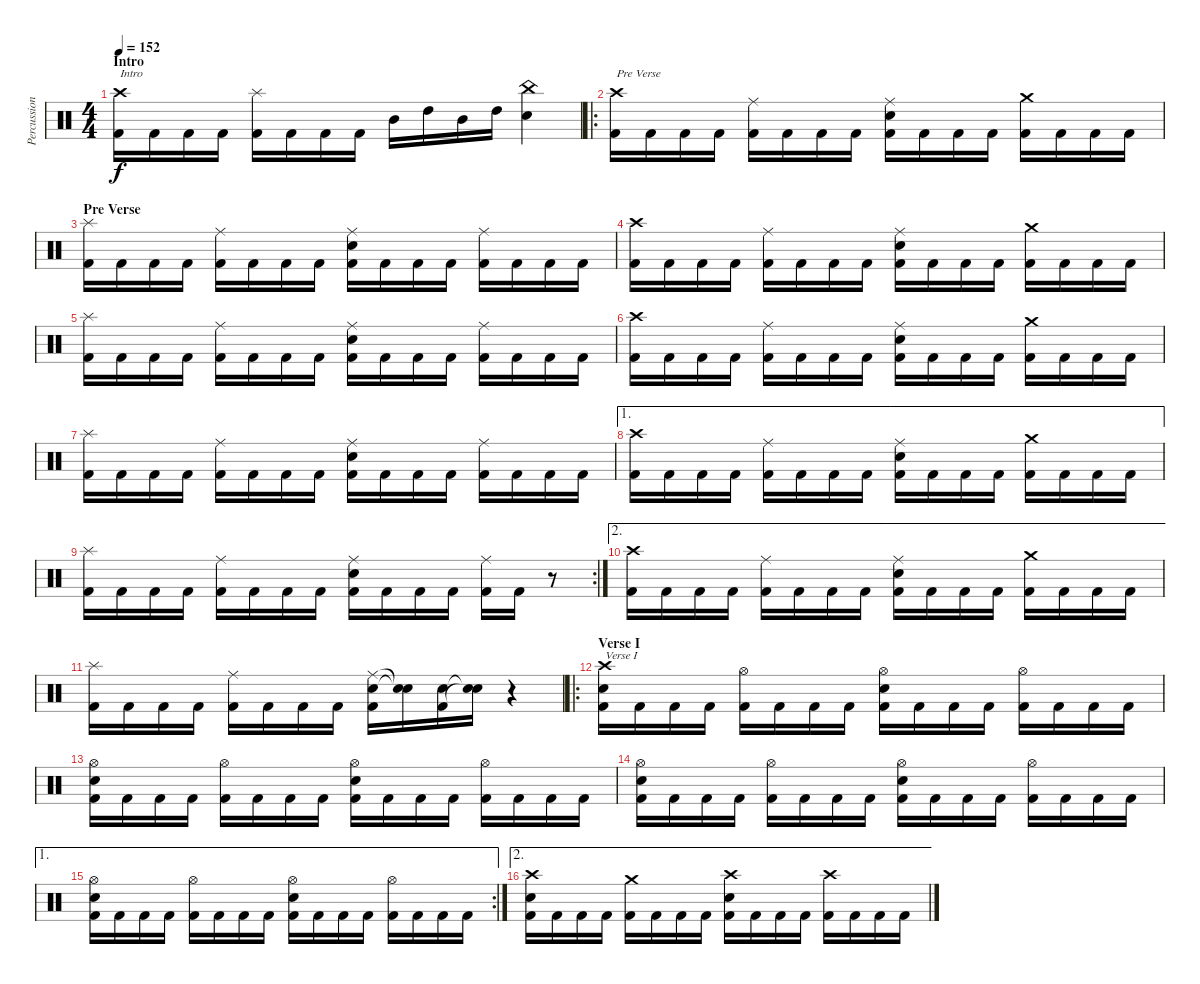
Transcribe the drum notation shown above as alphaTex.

\track ("Percussion" "Percussion") {instrument percussion}
\staff {score}
\articulation defaults
\ts (4 4)
\section ("" "Intro")
\tempo 152
\clef neutral
\ks c
("Crash high (hit)" "Kick (hit) 2").16{txt "Intro" dy f} "Kick (hit) 2".16 "Kick (hit) 2".16 "Kick (hit) 2".16 ("Splash (hit)" "Kick (hit) 2").16 "Kick (hit) 2".16 "Kick (hit) 2".16 "Kick (hit) 2".16 "Mid Tom (hit)".16 "High Tom (hit)".16 "Mid Tom (hit)".16 "High Tom (hit)".16 ("China (hit)" "Electric Snare (hit)").4 |
\ro
("Crash high (hit)" "Kick (hit) 2").16{txt "Pre Verse"} "Kick (hit) 2".16 "Kick (hit) 2".16 "Kick (hit) 2".16 ("Ride (middle)" "Kick (hit) 2").16 "Kick (hit) 2".16 "Kick (hit) 2".16 "Kick (hit) 2".16 ("Ride (middle)" "Electric Snare (hit)" "Kick (hit) 2").16 "Kick (hit) 2".16 "Kick (hit) 2".16 "Kick (hit) 2".16 ("Crash medium (hit)" "Kick (hit) 2").16 "Kick (hit) 2".16 "Kick (hit) 2".16 "Kick (hit) 2".16 |
\section ("" "Pre Verse")
("Splash (hit)" "Kick (hit) 2").16 "Kick (hit) 2".16 "Kick (hit) 2".16 "Kick (hit) 2".16 ("Ride (middle)" "Kick (hit) 2").16 "Kick (hit) 2".16 "Kick (hit) 2".16 "Kick (hit) 2".16 ("Ride (middle)" "Electric Snare (hit)" "Kick (hit) 2").16 "Kick (hit) 2".16 "Kick (hit) 2".16 "Kick (hit) 2".16 ("Ride (middle)" "Kick (hit) 2").16 "Kick (hit) 2".16 "Kick (hit) 2".16 "Kick (hit) 2".16 |
("Crash high (hit)" "Kick (hit) 2").16 "Kick (hit) 2".16 "Kick (hit) 2".16 "Kick (hit) 2".16 ("Ride (middle)" "Kick (hit) 2").16 "Kick (hit) 2".16 "Kick (hit) 2".16 "Kick (hit) 2".16 ("Ride (middle)" "Electric Snare (hit)" "Kick (hit) 2").16 "Kick (hit) 2".16 "Kick (hit) 2".16 "Kick (hit) 2".16 ("Crash medium (hit)" "Kick (hit) 2").16 "Kick (hit) 2".16 "Kick (hit) 2".16 "Kick (hit) 2".16 |
("Splash (hit)" "Kick (hit) 2").16 "Kick (hit) 2".16 "Kick (hit) 2".16 "Kick (hit) 2".16 ("Ride (middle)" "Kick (hit) 2").16 "Kick (hit) 2".16 "Kick (hit) 2".16 "Kick (hit) 2".16 ("Ride (middle)" "Electric Snare (hit)" "Kick (hit) 2").16 "Kick (hit) 2".16 "Kick (hit) 2".16 "Kick (hit) 2".16 ("Ride (middle)" "Kick (hit) 2").16 "Kick (hit) 2".16 "Kick (hit) 2".16 "Kick (hit) 2".16 |
("Crash high (hit)" "Kick (hit) 2").16 "Kick (hit) 2".16 "Kick (hit) 2".16 "Kick (hit) 2".16 ("Ride (middle)" "Kick (hit) 2").16 "Kick (hit) 2".16 "Kick (hit) 2".16 "Kick (hit) 2".16 ("Ride (middle)" "Electric Snare (hit)" "Kick (hit) 2").16 "Kick (hit) 2".16 "Kick (hit) 2".16 "Kick (hit) 2".16 ("Crash medium (hit)" "Kick (hit) 2").16 "Kick (hit) 2".16 "Kick (hit) 2".16 "Kick (hit) 2".16 |
("Splash (hit)" "Kick (hit) 2").16 "Kick (hit) 2".16 "Kick (hit) 2".16 "Kick (hit) 2".16 ("Ride (middle)" "Kick (hit) 2").16 "Kick (hit) 2".16 "Kick (hit) 2".16 "Kick (hit) 2".16 ("Ride (middle)" "Electric Snare (hit)" "Kick (hit) 2").16 "Kick (hit) 2".16 "Kick (hit) 2".16 "Kick (hit) 2".16 ("Ride (middle)" "Kick (hit) 2").16 "Kick (hit) 2".16 "Kick (hit) 2".16 "Kick (hit) 2".16 |
\ae 1
("Crash high (hit)" "Kick (hit) 2").16 "Kick (hit) 2".16 "Kick (hit) 2".16 "Kick (hit) 2".16 ("Ride (middle)" "Kick (hit) 2").16 "Kick (hit) 2".16 "Kick (hit) 2".16 "Kick (hit) 2".16 ("Ride (middle)" "Electric Snare (hit)" "Kick (hit) 2").16 "Kick (hit) 2".16 "Kick (hit) 2".16 "Kick (hit) 2".16 ("Crash medium (hit)" "Kick (hit) 2").16 "Kick (hit) 2".16 "Kick (hit) 2".16 "Kick (hit) 2".16 |
\rc 2
("Splash (hit)" "Kick (hit) 2").16 "Kick (hit) 2".16 "Kick (hit) 2".16 "Kick (hit) 2".16 ("Ride (middle)" "Kick (hit) 2").16 "Kick (hit) 2".16 "Kick (hit) 2".16 "Kick (hit) 2".16 ("Ride (middle)" "Electric Snare (hit)" "Kick (hit) 2").16 "Kick (hit) 2".16 "Kick (hit) 2".16 "Kick (hit) 2".16 ("Ride (middle)" "Kick (hit) 2").16 "Kick (hit) 2".16 r.8 |
\ae 2
("Crash high (hit)" "Kick (hit) 2").16 "Kick (hit) 2".16 "Kick (hit) 2".16 "Kick (hit) 2".16 ("Ride (middle)" "Kick (hit) 2").16 "Kick (hit) 2".16 "Kick (hit) 2".16 "Kick (hit) 2".16 ("Ride (middle)" "Electric Snare (hit)" "Kick (hit) 2").16 "Kick (hit) 2".16 "Kick (hit) 2".16 "Kick (hit) 2".16 ("Crash medium (hit)" "Kick (hit) 2").16 "Kick (hit) 2".16 "Kick (hit) 2".16 "Kick (hit) 2".16 |
("Splash (hit)" "Kick (hit) 2").16 "Kick (hit) 2".16 "Kick (hit) 2".16 "Kick (hit) 2".16 ("Ride (middle)" "Kick (hit) 2").16 "Kick (hit) 2".16 "Kick (hit) 2".16 "Kick (hit) 2".16 ("Ride (middle)" "Electric Snare (hit)" "Kick (hit) 2").16 ("Snare (hit)"{t} "Snare (hit)"{t}).16 ("Electric Snare (hit)" "Kick (hit) 2").16 ("Snare (hit)"{t} "Snare (hit)"{t}).16 r.4 |
\ro
\section ("" "Verse I")
("Crash high (hit)" "Electric Snare (hit)" "Kick (hit) 2").16{txt "Verse I"} "Kick (hit) 2".16 "Kick (hit) 2".16 "Kick (hit) 2".16 ("Hi-Hat (open)" "Kick (hit) 2").16 "Kick (hit) 2".16 "Kick (hit) 2".16 "Kick (hit) 2".16 ("Hi-Hat (open)" "Electric Snare (hit)" "Kick (hit) 2").16 "Kick (hit) 2".16 "Kick (hit) 2".16 "Kick (hit) 2".16 ("Hi-Hat (open)" "Kick (hit) 2").16 "Kick (hit) 2".16 "Kick (hit) 2".16 "Kick (hit) 2".16 |
("Hi-Hat (open)" "Electric Snare (hit)" "Kick (hit) 2").16 "Kick (hit) 2".16 "Kick (hit) 2".16 "Kick (hit) 2".16 ("Hi-Hat (open)" "Kick (hit) 2").16 "Kick (hit) 2".16 "Kick (hit) 2".16 "Kick (hit) 2".16 ("Hi-Hat (open)" "Electric Snare (hit)" "Kick (hit) 2").16 "Kick (hit) 2".16 "Kick (hit) 2".16 "Kick (hit) 2".16 ("Hi-Hat (open)" "Kick (hit) 2").16 "Kick (hit) 2".16 "Kick (hit) 2".16 "Kick (hit) 2".16 |
("Hi-Hat (open)" "Electric Snare (hit)" "Kick (hit) 2").16 "Kick (hit) 2".16 "Kick (hit) 2".16 "Kick (hit) 2".16 ("Hi-Hat (open)" "Kick (hit) 2").16 "Kick (hit) 2".16 "Kick (hit) 2".16 "Kick (hit) 2".16 ("Hi-Hat (open)" "Electric Snare (hit)" "Kick (hit) 2").16 "Kick (hit) 2".16 "Kick (hit) 2".16 "Kick (hit) 2".16 ("Hi-Hat (open)" "Kick (hit) 2").16 "Kick (hit) 2".16 "Kick (hit) 2".16 "Kick (hit) 2".16 |
\ae 1
\rc 2
("Hi-Hat (open)" "Electric Snare (hit)" "Kick (hit) 2").16 "Kick (hit) 2".16 "Kick (hit) 2".16 "Kick (hit) 2".16 ("Hi-Hat (open)" "Kick (hit) 2").16 "Kick (hit) 2".16 "Kick (hit) 2".16 "Kick (hit) 2".16 ("Hi-Hat (open)" "Electric Snare (hit)" "Kick (hit) 2").16 "Kick (hit) 2".16 "Kick (hit) 2".16 "Kick (hit) 2".16 ("Hi-Hat (open)" "Kick (hit) 2").16 "Kick (hit) 2".16 "Kick (hit) 2".16 "Kick (hit) 2".16 |
\ae 2
("Crash high (hit)" "Electric Snare (hit)" "Kick (hit) 2").16 "Kick (hit) 2".16 "Kick (hit) 2".16 "Kick (hit) 2".16 ("Crash medium (hit)" "Kick (hit) 2").16 "Kick (hit) 2".16 "Kick (hit) 2".16 "Kick (hit) 2".16 ("Crash high (hit)" "Electric Snare (hit)" "Kick (hit) 2").16 "Kick (hit) 2".16 "Kick (hit) 2".16 "Kick (hit) 2".16 ("Crash high (hit)" "Kick (hit) 2").16 "Kick (hit) 2".16 "Kick (hit) 2".16 "Kick (hit) 2".16
